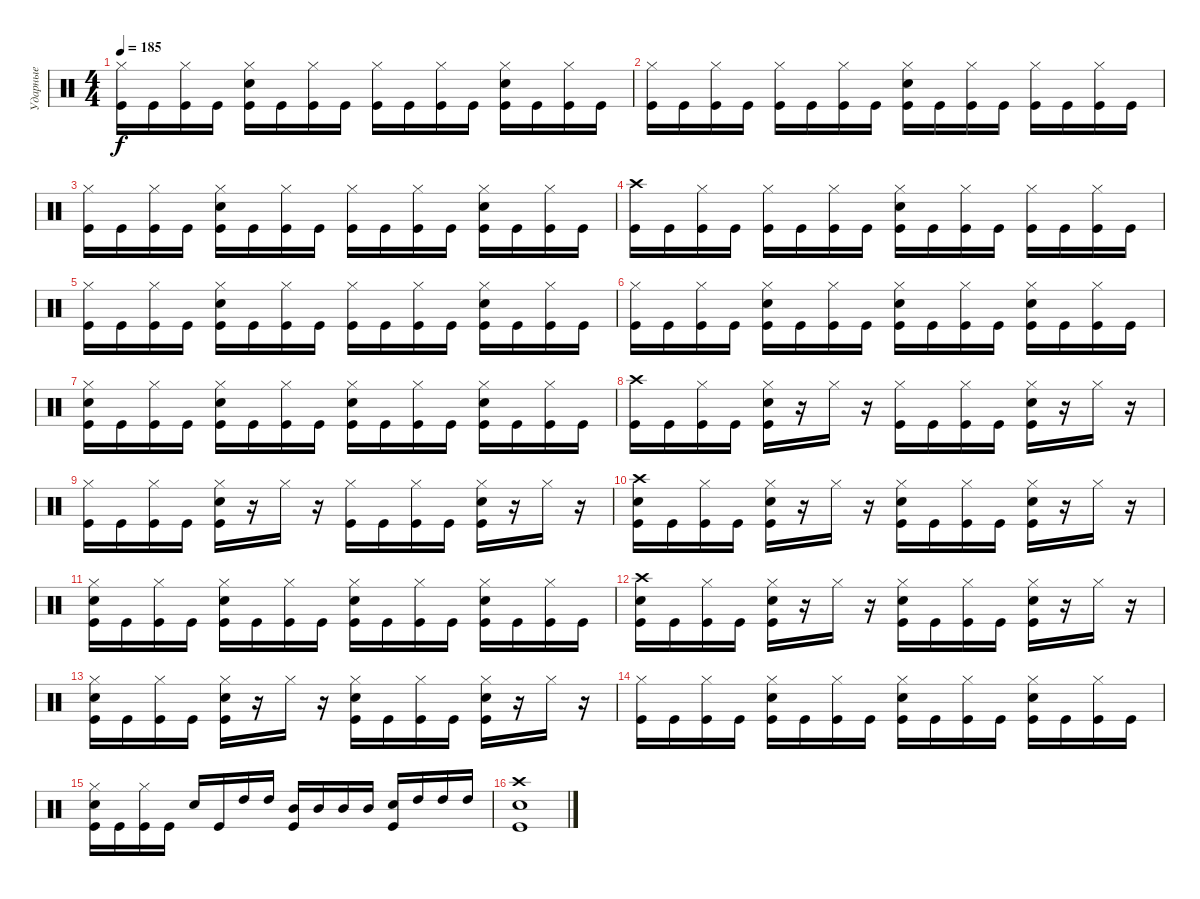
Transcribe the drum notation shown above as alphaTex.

\track ("Ударные" "Ударные") {instrument percussion}
\staff {score}
\articulation defaults
\ts (4 4)
\tempo 185
\clef neutral
\ks c
("Hi-Hat (closed)" "Kick (hit)").16{dy f} "Kick (hit)".16 ("Hi-Hat (closed)" "Kick (hit)").16 "Kick (hit)".16 ("Hi-Hat (closed)" "Electric Snare (hit)" "Kick (hit)").16 "Kick (hit)".16 ("Hi-Hat (closed)" "Kick (hit)").16 "Kick (hit)".16 ("Hi-Hat (closed)" "Kick (hit)").16 "Kick (hit)".16 ("Hi-Hat (closed)" "Kick (hit)").16 "Kick (hit)".16 ("Hi-Hat (closed)" "Electric Snare (hit)" "Kick (hit)").16 "Kick (hit)".16 ("Hi-Hat (closed)" "Kick (hit)").16 "Kick (hit)".16 |
("Hi-Hat (closed)" "Kick (hit)").16 "Kick (hit)".16 ("Hi-Hat (closed)" "Kick (hit)").16 "Kick (hit)".16 ("Hi-Hat (closed)" "Kick (hit)").16 "Kick (hit)".16 ("Hi-Hat (closed)" "Kick (hit)").16 "Kick (hit)".16 ("Hi-Hat (closed)" "Electric Snare (hit)" "Kick (hit)").16 "Kick (hit)".16 ("Hi-Hat (closed)" "Kick (hit)").16 "Kick (hit)".16 ("Hi-Hat (closed)" "Kick (hit)").16 "Kick (hit)".16 ("Hi-Hat (closed)" "Kick (hit)").16 "Kick (hit)".16 |
("Hi-Hat (closed)" "Kick (hit)").16 "Kick (hit)".16 ("Hi-Hat (closed)" "Kick (hit)").16 "Kick (hit)".16 ("Hi-Hat (closed)" "Electric Snare (hit)" "Kick (hit)").16 "Kick (hit)".16 ("Hi-Hat (closed)" "Kick (hit)").16 "Kick (hit)".16 ("Hi-Hat (closed)" "Kick (hit)").16 "Kick (hit)".16 ("Hi-Hat (closed)" "Kick (hit)").16 "Kick (hit)".16 ("Hi-Hat (closed)" "Electric Snare (hit)" "Kick (hit)").16 "Kick (hit)".16 ("Hi-Hat (closed)" "Kick (hit)").16 "Kick (hit)".16 |
("Crash high (hit)" "Kick (hit)").16 "Kick (hit)".16 ("Hi-Hat (closed)" "Kick (hit)").16 "Kick (hit)".16 ("Hi-Hat (closed)" "Kick (hit)").16 "Kick (hit)".16 ("Hi-Hat (closed)" "Kick (hit)").16 "Kick (hit)".16 ("Hi-Hat (closed)" "Electric Snare (hit)" "Kick (hit)").16 "Kick (hit)".16 ("Hi-Hat (closed)" "Kick (hit)").16 "Kick (hit)".16 ("Hi-Hat (closed)" "Kick (hit)").16 "Kick (hit)".16 ("Hi-Hat (closed)" "Kick (hit)").16 "Kick (hit)".16 |
("Hi-Hat (closed)" "Kick (hit)").16 "Kick (hit)".16 ("Hi-Hat (closed)" "Kick (hit)").16 "Kick (hit)".16 ("Hi-Hat (closed)" "Electric Snare (hit)" "Kick (hit)").16 "Kick (hit)".16 ("Hi-Hat (closed)" "Kick (hit)").16 "Kick (hit)".16 ("Hi-Hat (closed)" "Kick (hit)").16 "Kick (hit)".16 ("Hi-Hat (closed)" "Kick (hit)").16 "Kick (hit)".16 ("Hi-Hat (closed)" "Electric Snare (hit)" "Kick (hit)").16 "Kick (hit)".16 ("Hi-Hat (closed)" "Kick (hit)").16 "Kick (hit)".16 |
("Hi-Hat (closed)" "Kick (hit)").16 "Kick (hit)".16 ("Hi-Hat (closed)" "Kick (hit)").16 "Kick (hit)".16 ("Hi-Hat (closed)" "Electric Snare (hit)" "Kick (hit)").16 "Kick (hit)".16 ("Hi-Hat (closed)" "Kick (hit)").16 "Kick (hit)".16 ("Hi-Hat (closed)" "Electric Snare (hit)" "Kick (hit)").16 "Kick (hit)".16 ("Hi-Hat (closed)" "Kick (hit)").16 "Kick (hit)".16 ("Hi-Hat (closed)" "Electric Snare (hit)" "Kick (hit)").16 "Kick (hit)".16 ("Hi-Hat (closed)" "Kick (hit)").16 "Kick (hit)".16 |
("Hi-Hat (closed)" "Electric Snare (hit)" "Kick (hit)").16 "Kick (hit)".16 ("Hi-Hat (closed)" "Kick (hit)").16 "Kick (hit)".16 ("Hi-Hat (closed)" "Electric Snare (hit)" "Kick (hit)").16 "Kick (hit)".16 ("Hi-Hat (closed)" "Kick (hit)").16 "Kick (hit)".16 ("Hi-Hat (closed)" "Electric Snare (hit)" "Kick (hit)").16 "Kick (hit)".16 ("Hi-Hat (closed)" "Kick (hit)").16 "Kick (hit)".16 ("Hi-Hat (closed)" "Electric Snare (hit)" "Kick (hit)").16 "Kick (hit)".16 ("Hi-Hat (closed)" "Kick (hit)").16 "Kick (hit)".16 |
("Crash high (hit)" "Kick (hit)").16 "Kick (hit)".16 ("Hi-Hat (closed)" "Kick (hit)").16 "Kick (hit)".16 ("Hi-Hat (closed)" "Electric Snare (hit)" "Kick (hit)").16 r.16 "Hi-Hat (closed)".16 r.16 ("Hi-Hat (closed)" "Kick (hit)").16 "Kick (hit)".16 ("Hi-Hat (closed)" "Kick (hit)").16 "Kick (hit)".16 ("Hi-Hat (closed)" "Electric Snare (hit)" "Kick (hit)").16 r.16 "Hi-Hat (closed)".16 r.16 |
("Hi-Hat (closed)" "Kick (hit)").16 "Kick (hit)".16 ("Hi-Hat (closed)" "Kick (hit)").16 "Kick (hit)".16 ("Hi-Hat (closed)" "Electric Snare (hit)" "Kick (hit)").16 r.16 "Hi-Hat (closed)".16 r.16 ("Hi-Hat (closed)" "Kick (hit)").16 "Kick (hit)".16 ("Hi-Hat (closed)" "Kick (hit)").16 "Kick (hit)".16 ("Hi-Hat (closed)" "Electric Snare (hit)" "Kick (hit)").16 r.16 "Hi-Hat (closed)".16 r.16 |
("Crash high (hit)" "Electric Snare (hit)" "Kick (hit)").16 "Kick (hit)".16 ("Hi-Hat (closed)" "Kick (hit)").16 "Kick (hit)".16 ("Hi-Hat (closed)" "Electric Snare (hit)" "Kick (hit)").16 r.16 "Hi-Hat (closed)".16 r.16 ("Hi-Hat (closed)" "Electric Snare (hit)" "Kick (hit)").16 "Kick (hit)".16 ("Hi-Hat (closed)" "Kick (hit)").16 "Kick (hit)".16 ("Hi-Hat (closed)" "Electric Snare (hit)" "Kick (hit)").16 r.16 "Hi-Hat (closed)".16 r.16 |
("Hi-Hat (closed)" "Electric Snare (hit)" "Kick (hit)").16 "Kick (hit)".16 ("Hi-Hat (closed)" "Kick (hit)").16 "Kick (hit)".16 ("Hi-Hat (closed)" "Electric Snare (hit)" "Kick (hit)").16 "Kick (hit)".16 ("Hi-Hat (closed)" "Kick (hit)").16 "Kick (hit)".16 ("Hi-Hat (closed)" "Electric Snare (hit)" "Kick (hit)").16 "Kick (hit)".16 ("Hi-Hat (closed)" "Kick (hit)").16 "Kick (hit)".16 ("Hi-Hat (closed)" "Electric Snare (hit)" "Kick (hit)").16 "Kick (hit)".16 ("Hi-Hat (closed)" "Kick (hit)").16 "Kick (hit)".16 |
("Crash high (hit)" "Electric Snare (hit)" "Kick (hit)").16 "Kick (hit)".16 ("Hi-Hat (closed)" "Kick (hit)").16 "Kick (hit)".16 ("Hi-Hat (closed)" "Electric Snare (hit)" "Kick (hit)").16 r.16 "Hi-Hat (closed)".16 r.16 ("Hi-Hat (closed)" "Electric Snare (hit)" "Kick (hit)").16 "Kick (hit)".16 ("Hi-Hat (closed)" "Kick (hit)").16 "Kick (hit)".16 ("Hi-Hat (closed)" "Electric Snare (hit)" "Kick (hit)").16 r.16 "Hi-Hat (closed)".16 r.16 |
("Hi-Hat (closed)" "Electric Snare (hit)" "Kick (hit)").16 "Kick (hit)".16 ("Hi-Hat (closed)" "Kick (hit)").16 "Kick (hit)".16 ("Hi-Hat (closed)" "Electric Snare (hit)" "Kick (hit)").16 r.16 "Hi-Hat (closed)".16 r.16 ("Hi-Hat (closed)" "Electric Snare (hit)" "Kick (hit)").16 "Kick (hit)".16 ("Hi-Hat (closed)" "Kick (hit)").16 "Kick (hit)".16 ("Hi-Hat (closed)" "Electric Snare (hit)" "Kick (hit)").16 r.16 "Hi-Hat (closed)".16 r.16 |
("Hi-Hat (closed)" "Kick (hit)").16 "Kick (hit)".16 ("Hi-Hat (closed)" "Kick (hit)").16 "Kick (hit)".16 ("Hi-Hat (closed)" "Electric Snare (hit)" "Kick (hit)").16 "Kick (hit)".16 ("Hi-Hat (closed)" "Kick (hit)").16 "Kick (hit)".16 ("Hi-Hat (closed)" "Electric Snare (hit)" "Kick (hit)").16 "Kick (hit)".16 ("Hi-Hat (closed)" "Kick (hit)").16 "Kick (hit)".16 ("Hi-Hat (closed)" "Electric Snare (hit)" "Kick (hit)").16 "Kick (hit)".16 ("Hi-Hat (closed)" "Kick (hit)").16 "Kick (hit)".16 |
("Hi-Hat (closed)" "Electric Snare (hit)" "Kick (hit)").16 "Kick (hit)".16 ("Hi-Hat (closed)" "Kick (hit)").16 "Kick (hit)".16 "Electric Snare (hit)".16 "Kick (hit)".16 "High Tom (hit)".16 "High Tom (hit)".16 ("Mid Tom (hit)" "Kick (hit)").16 "Mid Tom (hit)".16 "Mid Tom (hit)".16 "Mid Tom (hit)".16 ("Electric Snare (hit)" "Kick (hit)").16 "High Tom (hit)".16 "High Tom (hit)".16 "High Tom (hit)".16 |
("Crash high (hit)" "Electric Snare (hit)" "Kick (hit)").1
